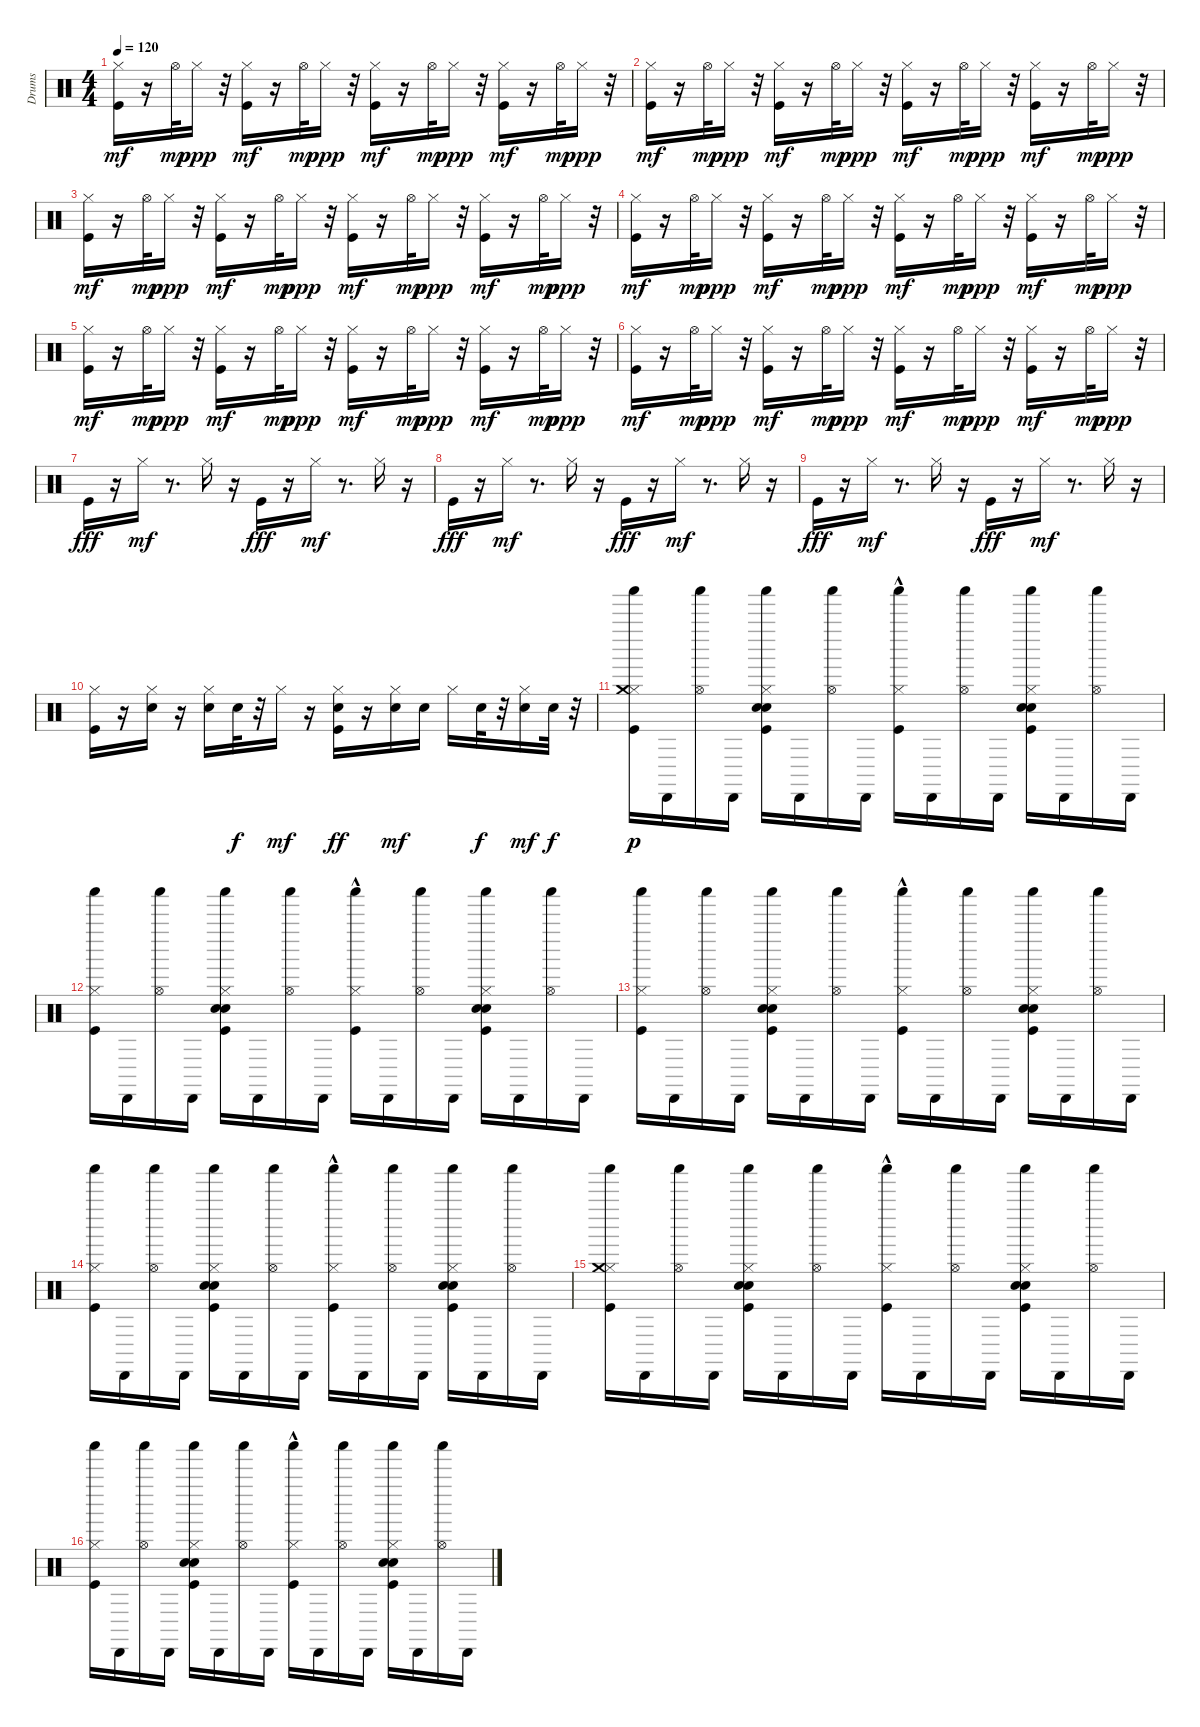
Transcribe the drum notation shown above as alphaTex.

\track ("Drums" "Drums") {instrument percussion}
\staff {score}
\articulation defaults
\ts (4 4)
\tempo 120
\clef neutral
\ks c
("Kick (hit)" "Hi-Hat (closed)").16{dy mf} r.16 "Hi-Hat (open)".32{dy mp} "Hi-Hat (closed)".16{dy ppp} r.32 ("Kick (hit)" "Hi-Hat (closed)").16{dy mf} r.16 "Hi-Hat (open)".32{dy mp} "Hi-Hat (closed)".16{dy ppp} r.32 ("Kick (hit)" "Hi-Hat (closed)").16{dy mf} r.16 "Hi-Hat (open)".32{dy mp} "Hi-Hat (closed)".16{dy ppp} r.32 ("Kick (hit)" "Hi-Hat (closed)").16{dy mf} r.16 "Hi-Hat (open)".32{dy mp} "Hi-Hat (closed)".16{dy ppp} r.32 |
("Kick (hit)" "Hi-Hat (closed)").16{dy mf} r.16 "Hi-Hat (open)".32{dy mp} "Hi-Hat (closed)".16{dy ppp} r.32 ("Kick (hit)" "Hi-Hat (closed)").16{dy mf} r.16 "Hi-Hat (open)".32{dy mp} "Hi-Hat (closed)".16{dy ppp} r.32 ("Kick (hit)" "Hi-Hat (closed)").16{dy mf} r.16 "Hi-Hat (open)".32{dy mp} "Hi-Hat (closed)".16{dy ppp} r.32 ("Kick (hit)" "Hi-Hat (closed)").16{dy mf} r.16 "Hi-Hat (open)".32{dy mp} "Hi-Hat (closed)".16{dy ppp} r.32 |
("Kick (hit)" "Hi-Hat (closed)").16{dy mf} r.16 "Hi-Hat (open)".32{dy mp} "Hi-Hat (closed)".16{dy ppp} r.32 ("Kick (hit)" "Hi-Hat (closed)").16{dy mf} r.16 "Hi-Hat (open)".32{dy mp} "Hi-Hat (closed)".16{dy ppp} r.32 ("Kick (hit)" "Hi-Hat (closed)").16{dy mf} r.16 "Hi-Hat (open)".32{dy mp} "Hi-Hat (closed)".16{dy ppp} r.32 ("Kick (hit)" "Hi-Hat (closed)").16{dy mf} r.16 "Hi-Hat (open)".32{dy mp} "Hi-Hat (closed)".16{dy ppp} r.32 |
("Kick (hit)" "Hi-Hat (closed)").16{dy mf} r.16 "Hi-Hat (open)".32{dy mp} "Hi-Hat (closed)".16{dy ppp} r.32 ("Kick (hit)" "Hi-Hat (closed)").16{dy mf} r.16 "Hi-Hat (open)".32{dy mp} "Hi-Hat (closed)".16{dy ppp} r.32 ("Kick (hit)" "Hi-Hat (closed)").16{dy mf} r.16 "Hi-Hat (open)".32{dy mp} "Hi-Hat (closed)".16{dy ppp} r.32 ("Kick (hit)" "Hi-Hat (closed)").16{dy mf} r.16 "Hi-Hat (open)".32{dy mp} "Hi-Hat (closed)".16{dy ppp} r.32 |
("Kick (hit)" "Hi-Hat (closed)").16{dy mf} r.16 "Hi-Hat (open)".32{dy mp} "Hi-Hat (closed)".16{dy ppp} r.32 ("Kick (hit)" "Hi-Hat (closed)").16{dy mf} r.16 "Hi-Hat (open)".32{dy mp} "Hi-Hat (closed)".16{dy ppp} r.32 ("Kick (hit)" "Hi-Hat (closed)").16{dy mf} r.16 "Hi-Hat (open)".32{dy mp} "Hi-Hat (closed)".16{dy ppp} r.32 ("Kick (hit)" "Hi-Hat (closed)").16{dy mf} r.16 "Hi-Hat (open)".32{dy mp} "Hi-Hat (closed)".16{dy ppp} r.32 |
("Kick (hit)" "Hi-Hat (closed)").16{dy mf} r.16 "Hi-Hat (open)".32{dy mp} "Hi-Hat (closed)".16{dy ppp} r.32 ("Kick (hit)" "Hi-Hat (closed)").16{dy mf} r.16 "Hi-Hat (open)".32{dy mp} "Hi-Hat (closed)".16{dy ppp} r.32 ("Kick (hit)" "Hi-Hat (closed)").16{dy mf} r.16 "Hi-Hat (open)".32{dy mp} "Hi-Hat (closed)".16{dy ppp} r.32 ("Kick (hit)" "Hi-Hat (closed)").16{dy mf} r.16 "Hi-Hat (open)".32{dy mp} "Hi-Hat (closed)".16{dy ppp} r.32 |
"Kick (hit)".16{dy fff} r.16 "Hi-Hat (closed)".16{dy mf} r.8{d} "Hi-Hat (closed)".16 r.16 "Kick (hit)".16{dy fff} r.16 "Hi-Hat (closed)".16{dy mf} r.8{d} "Hi-Hat (closed)".16 r.16 |
"Kick (hit)".16{dy fff} r.16 "Hi-Hat (closed)".16{dy mf} r.8{d} "Hi-Hat (closed)".16 r.16 "Kick (hit)".16{dy fff} r.16 "Hi-Hat (closed)".16{dy mf} r.8{d} "Hi-Hat (closed)".16 r.16 |
"Kick (hit)".16{dy fff} r.16 "Hi-Hat (closed)".16{dy mf} r.8{d} "Hi-Hat (closed)".16 r.16 "Kick (hit)".16{dy fff} r.16 "Hi-Hat (closed)".16{dy mf} r.8{d} "Hi-Hat (closed)".16 r.16 |
("Kick (hit)" "Hi-Hat (closed)").16 r.16 ("Snare (hit) 2" "Hi-Hat (closed)").16 r.16 ("Hi-Hat (closed)" "Snare (hit) 2").16 "Snare (hit) 2".32{dy f} r.32 "Hi-Hat (closed)".16{dy mf} r.16 ("Hi-Hat (closed)" "Kick (hit)" "Snare (hit) 2").16{dy ff} r.16 ("Snare (hit) 2" "Hi-Hat (closed)").16{dy mf} "Snare (hit) 2".16 "Hi-Hat (closed)".16 "Snare (hit) 2".32{dy f} r.32 ("Snare (hit) 2" "Hi-Hat (closed)").16{dy mf} "Snare (hit) 2".32{dy f} r.32 |
("Kick (hit)" "Hi-Hat (closed)" "Crash medium (hit)" "Shaker (hit)").16{dy p} "Cabasa (hit)".16 ("Hi-Hat (open)" "Shaker (hit)").16 "Cabasa (hit)".16 ("Kick (hit)" "Snare (hit) 2" "Electric Snare (hit)" "Hi-Hat (closed)" "Shaker (hit)").16 "Cabasa (hit)".16 ("Hi-Hat (open)" "Shaker (hit)").16 "Cabasa (hit)".16 ("Kick (hit)" "Hi-Hat (closed)" "Shaker (hit)"{hac}).16 "Cabasa (hit)".16 ("Hi-Hat (open)" "Shaker (hit)").16 "Cabasa (hit)".16 ("Kick (hit)" "Snare (hit) 2" "Electric Snare (hit)" "Hi-Hat (closed)" "Shaker (hit)").16 "Cabasa (hit)".16 ("Hi-Hat (open)" "Shaker (hit)").16 "Cabasa (hit)".16 |
("Kick (hit)" "Hi-Hat (closed)" "Shaker (hit)").16 "Cabasa (hit)".16 ("Hi-Hat (open)" "Shaker (hit)").16 "Cabasa (hit)".16 ("Kick (hit)" "Snare (hit) 2" "Electric Snare (hit)" "Hi-Hat (closed)" "Shaker (hit)").16 "Cabasa (hit)".16 ("Hi-Hat (open)" "Shaker (hit)").16 "Cabasa (hit)".16 ("Kick (hit)" "Hi-Hat (closed)" "Shaker (hit)"{hac}).16 "Cabasa (hit)".16 ("Hi-Hat (open)" "Shaker (hit)").16 "Cabasa (hit)".16 ("Kick (hit)" "Snare (hit) 2" "Electric Snare (hit)" "Hi-Hat (closed)" "Shaker (hit)").16 "Cabasa (hit)".16 ("Hi-Hat (open)" "Shaker (hit)").16 "Cabasa (hit)".16 |
("Kick (hit)" "Hi-Hat (closed)" "Shaker (hit)").16 "Cabasa (hit)".16 ("Hi-Hat (open)" "Shaker (hit)").16 "Cabasa (hit)".16 ("Kick (hit)" "Snare (hit) 2" "Electric Snare (hit)" "Hi-Hat (closed)" "Shaker (hit)").16 "Cabasa (hit)".16 ("Hi-Hat (open)" "Shaker (hit)").16 "Cabasa (hit)".16 ("Kick (hit)" "Hi-Hat (closed)" "Shaker (hit)"{hac}).16 "Cabasa (hit)".16 ("Hi-Hat (open)" "Shaker (hit)").16 "Cabasa (hit)".16 ("Kick (hit)" "Snare (hit) 2" "Electric Snare (hit)" "Hi-Hat (closed)" "Shaker (hit)").16 "Cabasa (hit)".16 ("Hi-Hat (open)" "Shaker (hit)").16 "Cabasa (hit)".16 |
("Kick (hit)" "Hi-Hat (closed)" "Shaker (hit)").16 "Cabasa (hit)".16 ("Hi-Hat (open)" "Shaker (hit)").16 "Cabasa (hit)".16 ("Kick (hit)" "Snare (hit) 2" "Electric Snare (hit)" "Hi-Hat (closed)" "Shaker (hit)").16 "Cabasa (hit)".16 ("Hi-Hat (open)" "Shaker (hit)").16 "Cabasa (hit)".16 ("Kick (hit)" "Hi-Hat (closed)" "Shaker (hit)"{hac}).16 "Cabasa (hit)".16 ("Hi-Hat (open)" "Shaker (hit)").16 "Cabasa (hit)".16 ("Kick (hit)" "Snare (hit) 2" "Electric Snare (hit)" "Hi-Hat (closed)" "Shaker (hit)").16 "Cabasa (hit)".16 ("Hi-Hat (open)" "Shaker (hit)").16 "Cabasa (hit)".16 |
("Kick (hit)" "Hi-Hat (closed)" "Crash medium (hit)" "Shaker (hit)").16 "Cabasa (hit)".16 ("Hi-Hat (open)" "Shaker (hit)").16 "Cabasa (hit)".16 ("Kick (hit)" "Snare (hit) 2" "Electric Snare (hit)" "Hi-Hat (closed)" "Shaker (hit)").16 "Cabasa (hit)".16 ("Hi-Hat (open)" "Shaker (hit)").16 "Cabasa (hit)".16 ("Kick (hit)" "Hi-Hat (closed)" "Shaker (hit)"{hac}).16 "Cabasa (hit)".16 ("Hi-Hat (open)" "Shaker (hit)").16 "Cabasa (hit)".16 ("Kick (hit)" "Snare (hit) 2" "Electric Snare (hit)" "Hi-Hat (closed)" "Shaker (hit)").16 "Cabasa (hit)".16 ("Hi-Hat (open)" "Shaker (hit)").16 "Cabasa (hit)".16 |
("Kick (hit)" "Hi-Hat (closed)" "Shaker (hit)").16 "Cabasa (hit)".16 ("Hi-Hat (open)" "Shaker (hit)").16 "Cabasa (hit)".16 ("Kick (hit)" "Snare (hit) 2" "Electric Snare (hit)" "Hi-Hat (closed)" "Shaker (hit)").16 "Cabasa (hit)".16 ("Hi-Hat (open)" "Shaker (hit)").16 "Cabasa (hit)".16 ("Kick (hit)" "Hi-Hat (closed)" "Shaker (hit)"{hac}).16 "Cabasa (hit)".16 ("Hi-Hat (open)" "Shaker (hit)").16 "Cabasa (hit)".16 ("Kick (hit)" "Snare (hit) 2" "Electric Snare (hit)" "Hi-Hat (closed)" "Shaker (hit)").16 "Cabasa (hit)".16 ("Hi-Hat (open)" "Shaker (hit)").16 "Cabasa (hit)".16
